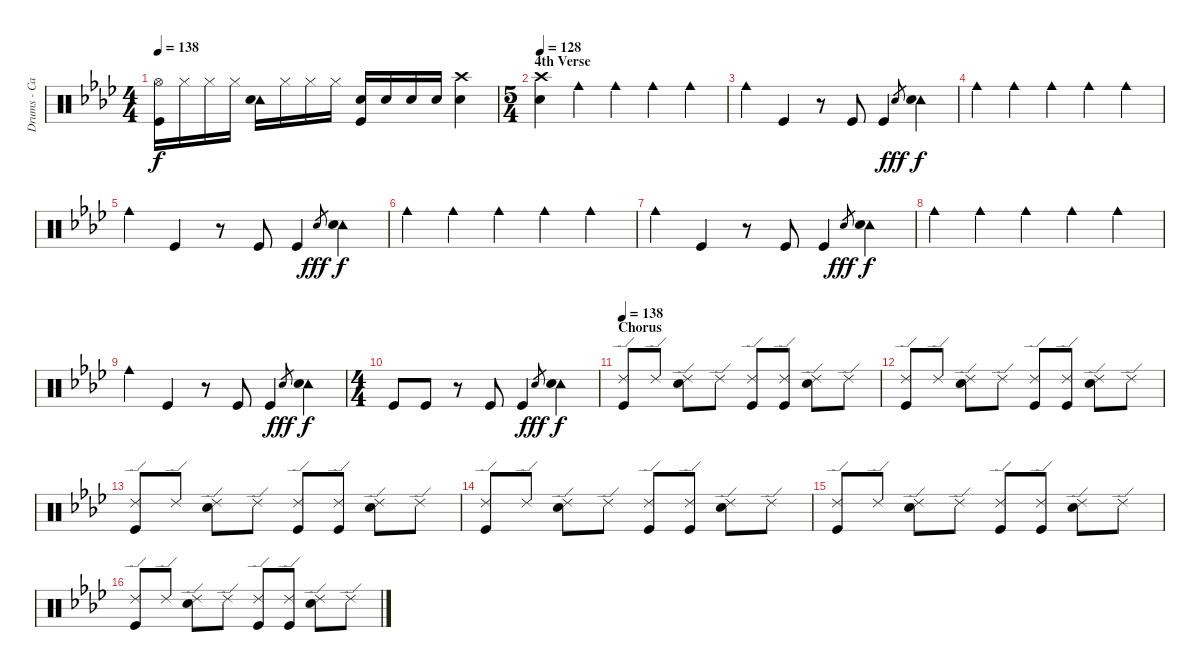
\track ("Drums - Carl Palmer" "Drums - Ca") {instrument percussion}
\staff {score}
\articulation defaults
\ts (4 4)
\tempo 138
\clef neutral
\ks ab
("Hi-Hat (open)" "Kick (hit)").16{dy f} "Hi-Hat (closed)".16 "Hi-Hat (closed)".16 "Hi-Hat (closed)".16 ("Tambourine (hit)" "Snare (hit) 2").16 "Hi-Hat (closed)".16 "Hi-Hat (closed)".16 "Hi-Hat (closed)".16 ("Snare (hit) 2" "Kick (hit)").16 "Snare (hit) 2".16 "Snare (hit) 2".16 "Snare (hit) 2".16 ("Crash high (hit)" "Snare (hit) 2").4 |
\ts (5 4)
\section ("" "4th Verse")
\tempo 128
("Crash high (hit)" "Snare (hit) 2").4 "Cowbell medium (hit)".4 "Cowbell medium (hit)".4 "Cowbell medium (hit)".4 "Cowbell medium (hit)".4 |
"Cowbell medium (hit)".4 "Kick (hit)".4 r.8 "Kick (hit)".8 "Kick (hit)".4 "Snare (hit) 2".8{gr dy fff} ("Tambourine (hit)" "Snare (hit) 2").4{dy f} |
"Cowbell medium (hit)".4 "Cowbell medium (hit)".4 "Cowbell medium (hit)".4 "Cowbell medium (hit)".4 "Cowbell medium (hit)".4 |
"Cowbell medium (hit)".4 "Kick (hit)".4 r.8 "Kick (hit)".8 "Kick (hit)".4 "Snare (hit) 2".8{gr dy fff} ("Tambourine (hit)" "Snare (hit) 2").4{dy f} |
"Cowbell medium (hit)".4 "Cowbell medium (hit)".4 "Cowbell medium (hit)".4 "Cowbell medium (hit)".4 "Cowbell medium (hit)".4 |
"Cowbell medium (hit)".4 "Kick (hit)".4 r.8 "Kick (hit)".8 "Kick (hit)".4 "Snare (hit) 2".8{gr dy fff} ("Tambourine (hit)" "Snare (hit) 2").4{dy f} |
"Cowbell medium (hit)".4 "Cowbell medium (hit)".4 "Cowbell medium (hit)".4 "Cowbell medium (hit)".4 "Cowbell medium (hit)".4 |
"Cowbell medium (hit)".4 "Kick (hit)".4 r.8 "Kick (hit)".8 "Kick (hit)".4 "Snare (hit) 2".8{gr dy fff} ("Tambourine (hit)" "Snare (hit) 2").4{dy f} |
\ts (4 4)
"Kick (hit)".8 "Kick (hit)".8 r.8 "Kick (hit)".8 "Kick (hit)".4 "Snare (hit) 2".8{gr dy fff} ("Tambourine (hit)" "Snare (hit) 2").4{dy f} |
\section ("" "Chorus")
\tempo 138
("Ride (edge) 2" "Kick (hit)").8 "Ride (edge) 2".8 ("Ride (edge) 2" "Snare (hit) 2").8 "Ride (edge) 2".8 ("Ride (edge) 2" "Kick (hit)").8 ("Ride (edge) 2" "Kick (hit)").8 ("Ride (edge) 2" "Snare (hit) 2").8 "Ride (edge) 2".8 |
("Ride (edge) 2" "Kick (hit)").8 "Ride (edge) 2".8 ("Ride (edge) 2" "Snare (hit) 2").8 "Ride (edge) 2".8 ("Ride (edge) 2" "Kick (hit)").8 ("Ride (edge) 2" "Kick (hit)").8 ("Ride (edge) 2" "Snare (hit) 2").8 "Ride (edge) 2".8 |
("Ride (edge) 2" "Kick (hit)").8 "Ride (edge) 2".8 ("Ride (edge) 2" "Snare (hit) 2").8 "Ride (edge) 2".8 ("Ride (edge) 2" "Kick (hit)").8 ("Ride (edge) 2" "Kick (hit)").8 ("Ride (edge) 2" "Snare (hit) 2").8 "Ride (edge) 2".8 |
("Ride (edge) 2" "Kick (hit)").8 "Ride (edge) 2".8 ("Ride (edge) 2" "Snare (hit) 2").8 "Ride (edge) 2".8 ("Ride (edge) 2" "Kick (hit)").8 ("Ride (edge) 2" "Kick (hit)").8 ("Ride (edge) 2" "Snare (hit) 2").8 "Ride (edge) 2".8 |
("Ride (edge) 2" "Kick (hit)").8 "Ride (edge) 2".8 ("Ride (edge) 2" "Snare (hit) 2").8 "Ride (edge) 2".8 ("Ride (edge) 2" "Kick (hit)").8 ("Ride (edge) 2" "Kick (hit)").8 ("Ride (edge) 2" "Snare (hit) 2").8 "Ride (edge) 2".8 |
("Ride (edge) 2" "Kick (hit)").8 "Ride (edge) 2".8 ("Ride (edge) 2" "Snare (hit) 2").8 "Ride (edge) 2".8 ("Ride (edge) 2" "Kick (hit)").8 ("Ride (edge) 2" "Kick (hit)").8 ("Ride (edge) 2" "Snare (hit) 2").8 "Ride (edge) 2".8
